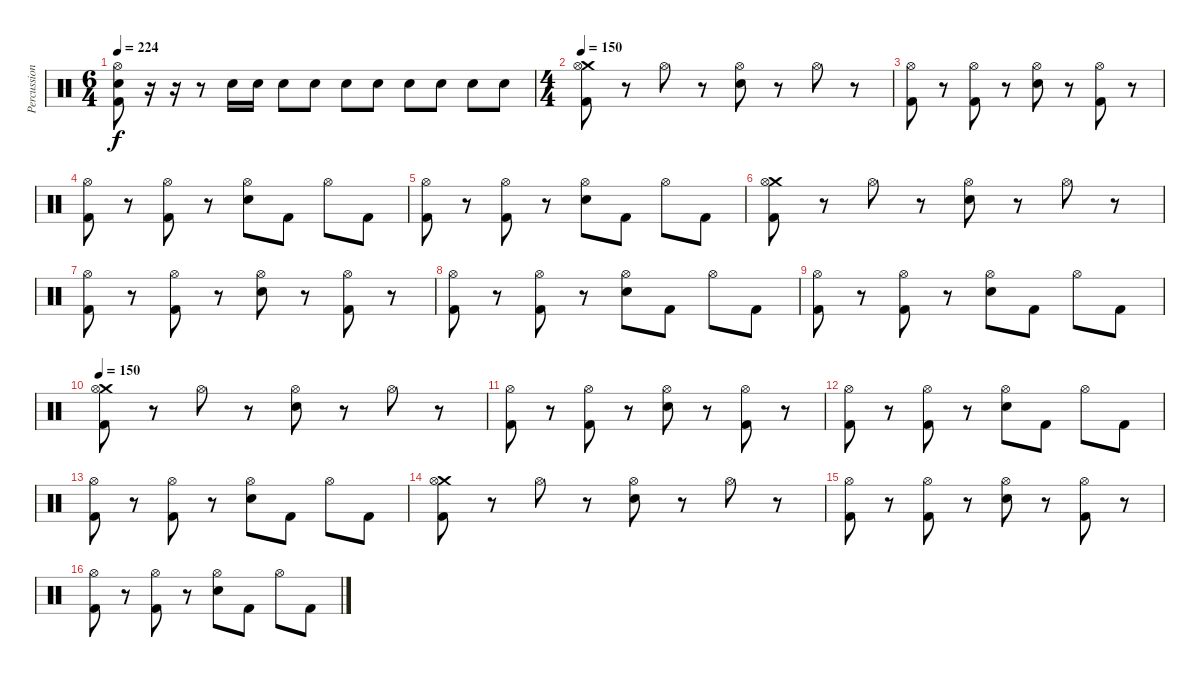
\track ("Percussion" "Percussion") {instrument percussion}
\staff {score}
\articulation defaults
\ts (6 4)
\tempo 224
\clef neutral
\ks c
("Hi-Hat (open)" "Electric Snare (hit)" "Kick (hit) 2").8{dy f} r.16 r.16 r.8 "Electric Snare (hit)".16 "Electric Snare (hit)".16 "Electric Snare (hit)".8 "Electric Snare (hit)".8 "Electric Snare (hit)".8 "Electric Snare (hit)".8 "Electric Snare (hit)".8 "Electric Snare (hit)".8 "Electric Snare (hit)".8 "Electric Snare (hit)".8 |
\ts (4 4)
\tempo 150
("Crash medium (hit)" "Hi-Hat (open)" "Kick (hit) 2").8 r.8 "Hi-Hat (open)".8 r.8 ("Hi-Hat (open)" "Electric Snare (hit)").8 r.8 "Hi-Hat (open)".8 r.8 |
("Hi-Hat (open)" "Kick (hit) 2").8 r.8 ("Hi-Hat (open)" "Kick (hit) 2").8 r.8 ("Hi-Hat (open)" "Electric Snare (hit)").8 r.8 ("Hi-Hat (open)" "Kick (hit) 2").8 r.8 |
("Hi-Hat (open)" "Kick (hit) 2").8 r.8 ("Hi-Hat (open)" "Kick (hit) 2").8 r.8 ("Hi-Hat (open)" "Electric Snare (hit)").8 "Kick (hit) 2".8 "Hi-Hat (open)".8 "Kick (hit) 2".8 |
("Hi-Hat (open)" "Kick (hit) 2").8 r.8 ("Hi-Hat (open)" "Kick (hit) 2").8 r.8 ("Hi-Hat (open)" "Electric Snare (hit)").8 "Kick (hit) 2".8 "Hi-Hat (open)".8 "Kick (hit) 2".8 |
("Crash medium (hit)" "Hi-Hat (open)" "Kick (hit) 2").8 r.8 "Hi-Hat (open)".8 r.8 ("Hi-Hat (open)" "Electric Snare (hit)").8 r.8 "Hi-Hat (open)".8 r.8 |
("Hi-Hat (open)" "Kick (hit) 2").8 r.8 ("Hi-Hat (open)" "Kick (hit) 2").8 r.8 ("Hi-Hat (open)" "Electric Snare (hit)").8 r.8 ("Hi-Hat (open)" "Kick (hit) 2").8 r.8 |
("Hi-Hat (open)" "Kick (hit) 2").8 r.8 ("Hi-Hat (open)" "Kick (hit) 2").8 r.8 ("Hi-Hat (open)" "Electric Snare (hit)").8 "Kick (hit) 2".8 "Hi-Hat (open)".8 "Kick (hit) 2".8 |
("Hi-Hat (open)" "Kick (hit) 2").8 r.8 ("Hi-Hat (open)" "Kick (hit) 2").8 r.8 ("Hi-Hat (open)" "Electric Snare (hit)").8 "Kick (hit) 2".8 "Hi-Hat (open)".8 "Kick (hit) 2".8 |
\tempo 150
("Crash medium (hit)" "Hi-Hat (open)" "Kick (hit) 2").8 r.8 "Hi-Hat (open)".8 r.8 ("Hi-Hat (open)" "Electric Snare (hit)").8 r.8 "Hi-Hat (open)".8 r.8 |
("Hi-Hat (open)" "Kick (hit) 2").8 r.8 ("Hi-Hat (open)" "Kick (hit) 2").8 r.8 ("Hi-Hat (open)" "Electric Snare (hit)").8 r.8 ("Hi-Hat (open)" "Kick (hit) 2").8 r.8 |
("Hi-Hat (open)" "Kick (hit) 2").8 r.8 ("Hi-Hat (open)" "Kick (hit) 2").8 r.8 ("Hi-Hat (open)" "Electric Snare (hit)").8 "Kick (hit) 2".8 "Hi-Hat (open)".8 "Kick (hit) 2".8 |
("Hi-Hat (open)" "Kick (hit) 2").8 r.8 ("Hi-Hat (open)" "Kick (hit) 2").8 r.8 ("Hi-Hat (open)" "Electric Snare (hit)").8 "Kick (hit) 2".8 "Hi-Hat (open)".8 "Kick (hit) 2".8 |
("Crash medium (hit)" "Hi-Hat (open)" "Kick (hit) 2").8 r.8 "Hi-Hat (open)".8 r.8 ("Hi-Hat (open)" "Electric Snare (hit)").8 r.8 "Hi-Hat (open)".8 r.8 |
("Hi-Hat (open)" "Kick (hit) 2").8 r.8 ("Hi-Hat (open)" "Kick (hit) 2").8 r.8 ("Hi-Hat (open)" "Electric Snare (hit)").8 r.8 ("Hi-Hat (open)" "Kick (hit) 2").8 r.8 |
("Hi-Hat (open)" "Kick (hit) 2").8 r.8 ("Hi-Hat (open)" "Kick (hit) 2").8 r.8 ("Hi-Hat (open)" "Electric Snare (hit)").8 "Kick (hit) 2".8 "Hi-Hat (open)".8 "Kick (hit) 2".8
